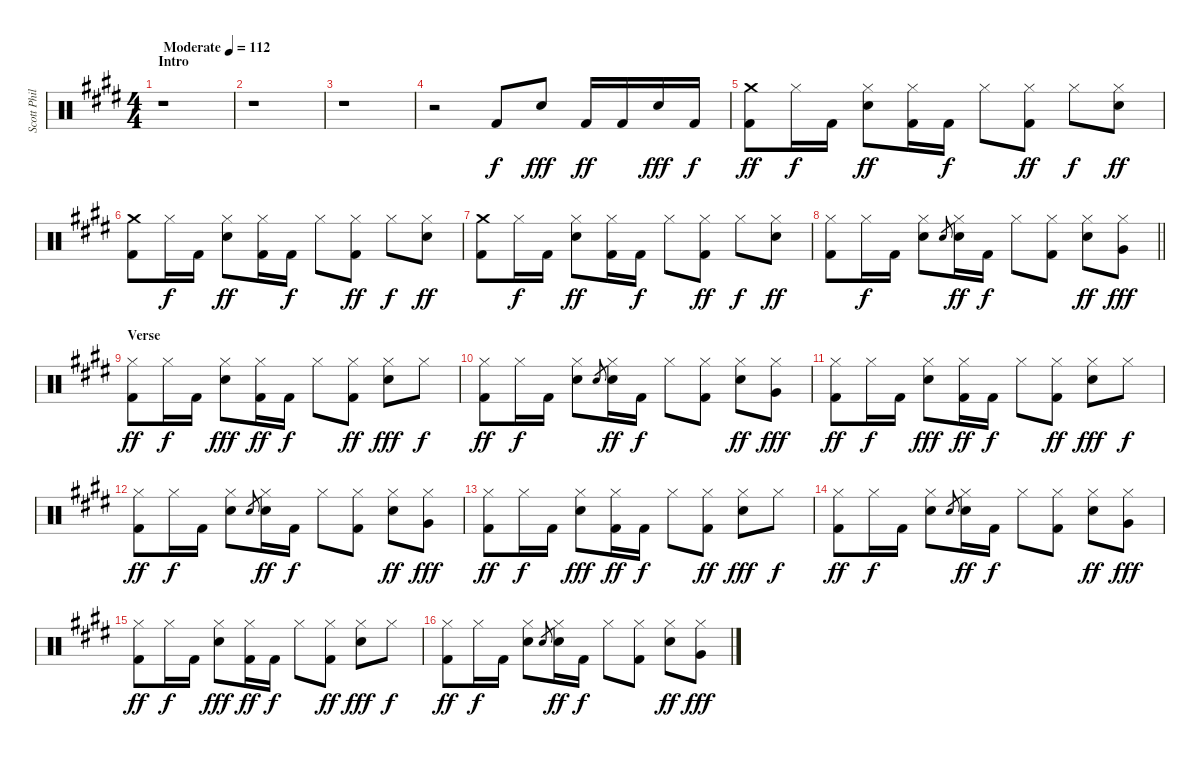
\track ("Scott Phillips" "Scott Phil") {instrument percussion}
\staff {score}
\articulation defaults
\ts (4 4)
\section ("" "Intro")
\tempo (112 "Moderate")
\clef neutral
\ks c#minor
r.1{dy f} |
r.1 |
r.1 |
r.2 "Kick (hit) 2".8 "Electric Snare (hit)".8{dy fff} "Kick (hit) 2".16{dy ff} "Kick (hit) 2".16 "Electric Snare (hit)".16{dy fff} "Kick (hit) 2".16{dy f} |
("Crash medium (hit)" "Kick (hit) 2").8{dy ff} "Hi-Hat (closed)".16{dy f} "Kick (hit) 2".16 ("Hi-Hat (closed)" "Electric Snare (hit)").8{dy ff} ("Hi-Hat (closed)" "Kick (hit) 2").16 "Kick (hit) 2".16{dy f} "Hi-Hat (closed)".8 ("Hi-Hat (closed)" "Kick (hit) 2").8{dy ff} "Hi-Hat (closed)".8{dy f} ("Hi-Hat (closed)" "Electric Snare (hit)").8{dy ff} |
("Crash medium (hit)" "Kick (hit) 2").8 "Hi-Hat (closed)".16{dy f} "Kick (hit) 2".16 ("Hi-Hat (closed)" "Electric Snare (hit)").8{dy ff} ("Hi-Hat (closed)" "Kick (hit) 2").16 "Kick (hit) 2".16{dy f} "Hi-Hat (closed)".8 ("Hi-Hat (closed)" "Kick (hit) 2").8{dy ff} "Hi-Hat (closed)".8{dy f} ("Hi-Hat (closed)" "Electric Snare (hit)").8{dy ff} |
("Crash medium (hit)" "Kick (hit) 2").8 "Hi-Hat (closed)".16{dy f} "Kick (hit) 2".16 ("Hi-Hat (closed)" "Electric Snare (hit)").8{dy ff} ("Hi-Hat (closed)" "Kick (hit) 2").16 "Kick (hit) 2".16{dy f} "Hi-Hat (closed)".8 ("Hi-Hat (closed)" "Kick (hit) 2").8{dy ff} "Hi-Hat (closed)".8{dy f} ("Hi-Hat (closed)" "Electric Snare (hit)").8{dy ff} |
\barLineRight lightlight
("Hi-Hat (closed)" "Kick (hit) 2").8 "Hi-Hat (closed)".16{dy f} "Kick (hit) 2".16 ("Hi-Hat (closed)" "Electric Snare (hit)").8 "Electric Snare (hit)".8{gr} ("Hi-Hat (closed)" "Electric Snare (hit)").16{dy ff} "Kick (hit) 2".16{dy f} "Hi-Hat (closed)".8 ("Hi-Hat (closed)" "Kick (hit) 2").8 ("Hi-Hat (closed)" "Electric Snare (hit)").8{dy ff} ("Hi-Hat (closed)" "Very Low Tom (hit)").8{dy fff} |
\section ("" "Verse")
("Hi-Hat (closed)" "Kick (hit) 2").8{dy ff} "Hi-Hat (closed)".16{dy f} "Kick (hit) 2".16 ("Hi-Hat (closed)" "Electric Snare (hit)").8{dy fff} ("Hi-Hat (closed)" "Kick (hit) 2").16{dy ff} "Kick (hit) 2".16{dy f} "Hi-Hat (closed)".8 ("Hi-Hat (closed)" "Kick (hit) 2").8{dy ff} ("Hi-Hat (closed)" "Electric Snare (hit)").8{dy fff} "Hi-Hat (closed)".8{dy f} |
("Hi-Hat (closed)" "Kick (hit) 2").8{dy ff} "Hi-Hat (closed)".16{dy f} "Kick (hit) 2".16 ("Hi-Hat (closed)" "Electric Snare (hit)").8 "Electric Snare (hit)".8{gr} ("Hi-Hat (closed)" "Electric Snare (hit)").16{dy ff} "Kick (hit) 2".16{dy f} "Hi-Hat (closed)".8 ("Hi-Hat (closed)" "Kick (hit) 2").8 ("Hi-Hat (closed)" "Electric Snare (hit)").8{dy ff} ("Hi-Hat (closed)" "Very Low Tom (hit)").8{dy fff} |
("Hi-Hat (closed)" "Kick (hit) 2").8{dy ff} "Hi-Hat (closed)".16{dy f} "Kick (hit) 2".16 ("Hi-Hat (closed)" "Electric Snare (hit)").8{dy fff} ("Hi-Hat (closed)" "Kick (hit) 2").16{dy ff} "Kick (hit) 2".16{dy f} "Hi-Hat (closed)".8 ("Hi-Hat (closed)" "Kick (hit) 2").8{dy ff} ("Hi-Hat (closed)" "Electric Snare (hit)").8{dy fff} "Hi-Hat (closed)".8{dy f} |
("Hi-Hat (closed)" "Kick (hit) 2").8{dy ff} "Hi-Hat (closed)".16{dy f} "Kick (hit) 2".16 ("Hi-Hat (closed)" "Electric Snare (hit)").8 "Electric Snare (hit)".8{gr} ("Hi-Hat (closed)" "Electric Snare (hit)").16{dy ff} "Kick (hit) 2".16{dy f} "Hi-Hat (closed)".8 ("Hi-Hat (closed)" "Kick (hit) 2").8 ("Hi-Hat (closed)" "Electric Snare (hit)").8{dy ff} ("Hi-Hat (closed)" "Very Low Tom (hit)").8{dy fff} |
("Hi-Hat (closed)" "Kick (hit) 2").8{dy ff} "Hi-Hat (closed)".16{dy f} "Kick (hit) 2".16 ("Hi-Hat (closed)" "Electric Snare (hit)").8{dy fff} ("Hi-Hat (closed)" "Kick (hit) 2").16{dy ff} "Kick (hit) 2".16{dy f} "Hi-Hat (closed)".8 ("Hi-Hat (closed)" "Kick (hit) 2").8{dy ff} ("Hi-Hat (closed)" "Electric Snare (hit)").8{dy fff} "Hi-Hat (closed)".8{dy f} |
("Hi-Hat (closed)" "Kick (hit) 2").8{dy ff} "Hi-Hat (closed)".16{dy f} "Kick (hit) 2".16 ("Hi-Hat (closed)" "Electric Snare (hit)").8 "Electric Snare (hit)".8{gr} ("Hi-Hat (closed)" "Electric Snare (hit)").16{dy ff} "Kick (hit) 2".16{dy f} "Hi-Hat (closed)".8 ("Hi-Hat (closed)" "Kick (hit) 2").8 ("Hi-Hat (closed)" "Electric Snare (hit)").8{dy ff} ("Hi-Hat (closed)" "Very Low Tom (hit)").8{dy fff} |
("Hi-Hat (closed)" "Kick (hit) 2").8{dy ff} "Hi-Hat (closed)".16{dy f} "Kick (hit) 2".16 ("Hi-Hat (closed)" "Electric Snare (hit)").8{dy fff} ("Hi-Hat (closed)" "Kick (hit) 2").16{dy ff} "Kick (hit) 2".16{dy f} "Hi-Hat (closed)".8 ("Hi-Hat (closed)" "Kick (hit) 2").8{dy ff} ("Hi-Hat (closed)" "Electric Snare (hit)").8{dy fff} "Hi-Hat (closed)".8{dy f} |
("Hi-Hat (closed)" "Kick (hit) 2").8{dy ff} "Hi-Hat (closed)".16{dy f} "Kick (hit) 2".16 ("Hi-Hat (closed)" "Electric Snare (hit)").8 "Electric Snare (hit)".8{gr} ("Hi-Hat (closed)" "Electric Snare (hit)").16{dy ff} "Kick (hit) 2".16{dy f} "Hi-Hat (closed)".8 ("Hi-Hat (closed)" "Kick (hit) 2").8 ("Hi-Hat (closed)" "Electric Snare (hit)").8{dy ff} ("Hi-Hat (closed)" "Very Low Tom (hit)").8{dy fff}
